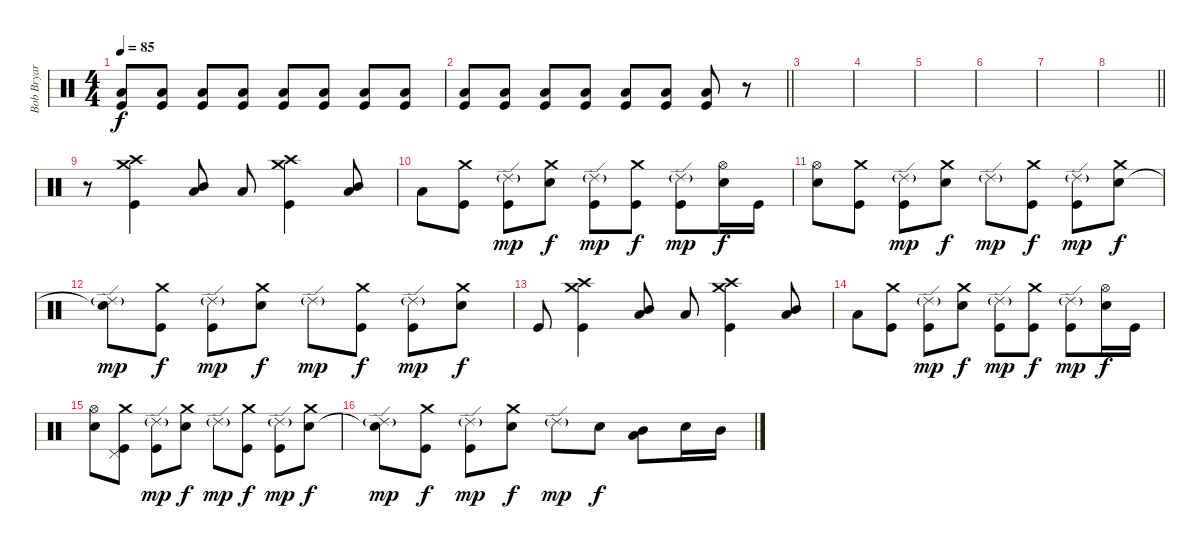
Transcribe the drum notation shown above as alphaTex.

\track ("Bob Bryar [Drums]" "Bob Bryar ") {instrument percussion}
\staff {score}
\articulation defaults
\ts (4 4)
\tempo 85
\clef neutral
\ks c
("Low Floor Tom (hit)" "Kick (hit)").8{dy f} ("Low Floor Tom (hit)" "Kick (hit)").8 ("Low Floor Tom (hit)" "Kick (hit)").8 ("Low Floor Tom (hit)" "Kick (hit)").8 ("Low Floor Tom (hit)" "Kick (hit)").8 ("Low Floor Tom (hit)" "Kick (hit)").8 ("Low Floor Tom (hit)" "Kick (hit)").8 ("Low Floor Tom (hit)" "Kick (hit)").8 |
\barLineRight lightlight
("Low Floor Tom (hit)" "Kick (hit)").8 ("Low Floor Tom (hit)" "Kick (hit)").8 ("Low Floor Tom (hit)" "Kick (hit)").8 ("Low Floor Tom (hit)" "Kick (hit)").8 ("Low Floor Tom (hit)" "Kick (hit)").8 ("Low Floor Tom (hit)" "Kick (hit)").8 ("Low Floor Tom (hit)" "Kick (hit)").8 r.8 |
|
|
|
|
|
\barLineRight lightlight
|
r.8 ("Crash high (hit)" "Crash medium (hit)" "Kick (hit)").4 ("Mid Tom (hit)" "Low Floor Tom (hit)").8 "Low Floor Tom (hit)".8 ("Crash high (hit)" "Crash medium (hit)" "Kick (hit)").4 ("Mid Tom (hit)" "Low Floor Tom (hit)").8 |
"Low Floor Tom (hit)".8 ("Crash medium (hit)" "Kick (hit)").8 ("Ride (edge) 2"{g} "Kick (hit)").8{dy mp} ("Crash medium (hit)" "Electric Snare (hit)").8{dy f} ("Ride (edge) 2"{g} "Kick (hit)").8{dy mp} ("Crash medium (hit)" "Kick (hit)").8{dy f} ("Ride (edge) 2"{g} "Kick (hit)").8{dy mp} ("Hi-Hat (open)" "Electric Snare (hit)").16{dy f} "Kick (hit)".16 |
("Hi-Hat (open)" "Electric Snare (hit)").8 ("Crash medium (hit)" "Kick (hit)").8 ("Ride (edge) 2"{g} "Kick (hit)").8{dy mp} ("Crash medium (hit)" "Electric Snare (hit)").8{dy f} "Ride (edge) 2"{g}.8{dy mp} ("Crash medium (hit)" "Kick (hit)").8{dy f} ("Ride (edge) 2"{g} "Kick (hit)").8{dy mp} ("Crash medium (hit)" "Electric Snare (hit)").8{dy f} |
("Ride (edge) 2"{g} "Snare (hit)"{t}).8{dy mp} ("Crash medium (hit)" "Kick (hit)").8{dy f} ("Ride (edge) 2"{g} "Kick (hit)").8{dy mp} ("Crash medium (hit)" "Electric Snare (hit)").8{dy f} "Ride (edge) 2"{g}.8{dy mp} ("Crash medium (hit)" "Kick (hit)").8{dy f} ("Ride (edge) 2"{g} "Kick (hit)").8{dy mp} ("Crash medium (hit)" "Electric Snare (hit)").8{dy f} |
"Kick (hit)".8 ("Crash high (hit)" "Crash medium (hit)" "Kick (hit)").4 ("Mid Tom (hit)" "Low Floor Tom (hit)").8 "Low Floor Tom (hit)".8 ("Crash high (hit)" "Crash medium (hit)" "Kick (hit)").4 ("Mid Tom (hit)" "Low Floor Tom (hit)").8 |
"Low Floor Tom (hit)".8 ("Crash medium (hit)" "Kick (hit)").8 ("Ride (edge) 2"{g} "Kick (hit)").8{dy mp} ("Crash medium (hit)" "Electric Snare (hit)").8{dy f} ("Ride (edge) 2"{g} "Kick (hit)").8{dy mp} ("Crash medium (hit)" "Kick (hit)").8{dy f} ("Ride (edge) 2"{g} "Kick (hit)").8{dy mp} ("Hi-Hat (open)" "Electric Snare (hit)").16{dy f} "Kick (hit)".16 |
("Hi-Hat (open)" "Electric Snare (hit)").8 ("Crash medium (hit)" "Pedal Hi-Hat (hit)" "Kick (hit)").8 ("Ride (edge) 2"{g} "Kick (hit)").8{dy mp} ("Crash medium (hit)" "Electric Snare (hit)").8{dy f} "Ride (edge) 2"{g}.8{dy mp} ("Crash medium (hit)" "Kick (hit)").8{dy f} ("Ride (edge) 2"{g} "Kick (hit)").8{dy mp} ("Crash medium (hit)" "Electric Snare (hit)").8{dy f} |
("Ride (edge) 2"{g} "Snare (hit)"{t}).8{dy mp} ("Crash medium (hit)" "Kick (hit)").8{dy f} ("Ride (edge) 2"{g} "Kick (hit)").8{dy mp} ("Crash medium (hit)" "Electric Snare (hit)").8{dy f} "Ride (edge) 2"{g}.8{dy mp} "Electric Snare (hit)".8{dy f} ("Mid Tom (hit)" "Low Floor Tom (hit)").8 "Electric Snare (hit)".16 "Mid Tom (hit)".16
